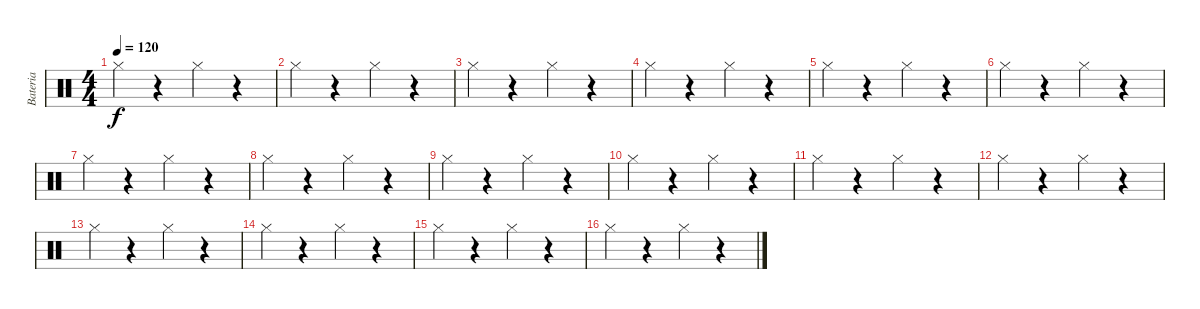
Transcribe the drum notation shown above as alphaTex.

\track ("Bateria" "Bateria") {instrument percussion}
\staff {score}
\articulation defaults
\ts (4 4)
\tempo 120
\clef neutral
\ks c "Hi-Hat (closed)".4{dy f}
r.4 "Hi-Hat (closed)".4 r.4 |
"Hi-Hat (closed)".4 r.4 "Hi-Hat (closed)".4 r.4 |
"Hi-Hat (closed)".4 r.4 "Hi-Hat (closed)".4 r.4 |
"Hi-Hat (closed)".4 r.4 "Hi-Hat (closed)".4 r.4 |
"Hi-Hat (closed)".4 r.4 "Hi-Hat (closed)".4 r.4 |
"Hi-Hat (closed)".4 r.4 "Hi-Hat (closed)".4 r.4 |
"Hi-Hat (closed)".4 r.4 "Hi-Hat (closed)".4 r.4 |
"Hi-Hat (closed)".4 r.4 "Hi-Hat (closed)".4 r.4 |
"Hi-Hat (closed)".4 r.4 "Hi-Hat (closed)".4 r.4 |
"Hi-Hat (closed)".4 r.4 "Hi-Hat (closed)".4 r.4 |
"Hi-Hat (closed)".4 r.4 "Hi-Hat (closed)".4 r.4 |
"Hi-Hat (closed)".4 r.4 "Hi-Hat (closed)".4 r.4 |
"Hi-Hat (closed)".4 r.4 "Hi-Hat (closed)".4 r.4 |
"Hi-Hat (closed)".4 r.4 "Hi-Hat (closed)".4 r.4 |
"Hi-Hat (closed)".4 r.4 "Hi-Hat (closed)".4 r.4 |
"Hi-Hat (closed)".4 r.4 "Hi-Hat (closed)".4 r.4
